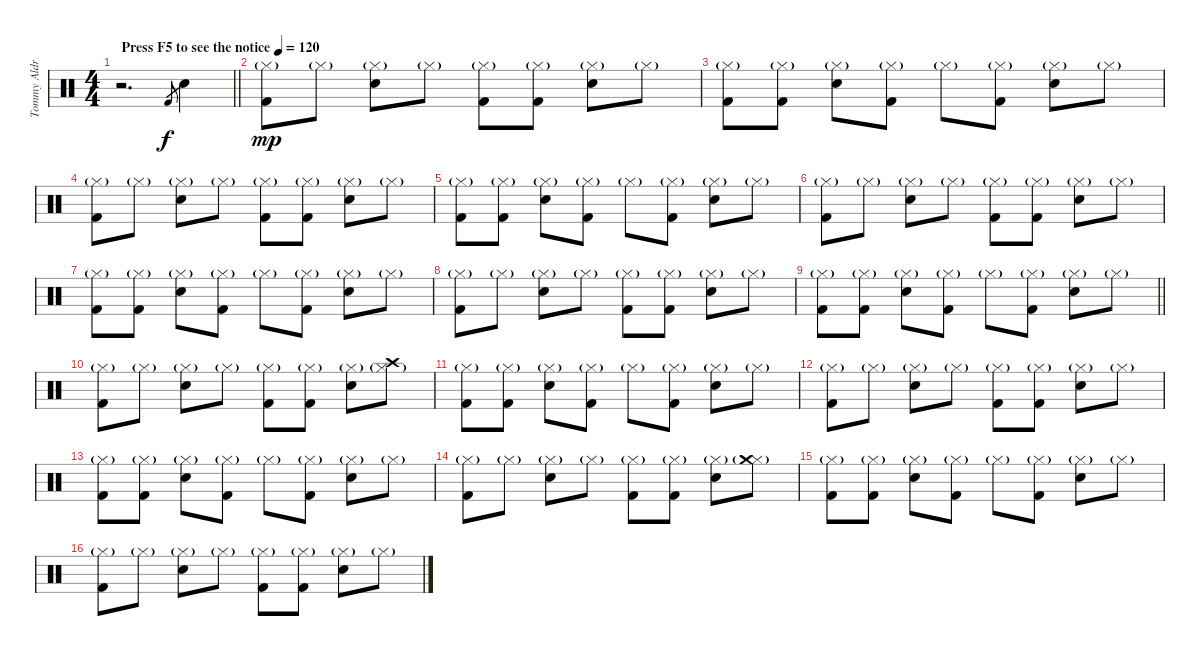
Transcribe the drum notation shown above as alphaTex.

\track ("Tommy Aldridge" "Tommy Aldr") {instrument percussion}
\staff {score}
\articulation defaults
\ts (4 4)
\tempo (120 "Press F5 to see the notice")
\clef neutral
\barLineRight lightlight
\ks c
r.2{d dy f} "Kick (hit) 2".8{gr} "Snare (hit) 2".4 |
("Hi-Hat (closed)"{g} "Kick (hit) 2").8{dy mp} "Hi-Hat (closed)"{g}.8 ("Hi-Hat (closed)"{g} "Snare (hit) 2").8 "Hi-Hat (closed)"{g}.8 ("Hi-Hat (closed)"{g} "Kick (hit) 2").8 ("Hi-Hat (closed)"{g} "Kick (hit) 2").8 ("Hi-Hat (closed)"{g} "Snare (hit) 2").8 "Hi-Hat (closed)"{g}.8 |
("Hi-Hat (closed)"{g} "Kick (hit) 2").8 ("Hi-Hat (closed)"{g} "Kick (hit) 2").8 ("Hi-Hat (closed)"{g} "Snare (hit) 2").8 ("Hi-Hat (closed)"{g} "Kick (hit) 2").8 "Hi-Hat (closed)"{g}.8 ("Hi-Hat (closed)"{g} "Kick (hit) 2").8 ("Hi-Hat (closed)"{g} "Snare (hit) 2").8 "Hi-Hat (closed)"{g}.8 |
("Hi-Hat (closed)"{g} "Kick (hit) 2").8 "Hi-Hat (closed)"{g}.8 ("Hi-Hat (closed)"{g} "Snare (hit) 2").8 "Hi-Hat (closed)"{g}.8 ("Hi-Hat (closed)"{g} "Kick (hit) 2").8 ("Hi-Hat (closed)"{g} "Kick (hit) 2").8 ("Hi-Hat (closed)"{g} "Snare (hit) 2").8 "Hi-Hat (closed)"{g}.8 |
("Hi-Hat (closed)"{g} "Kick (hit) 2").8 ("Hi-Hat (closed)"{g} "Kick (hit) 2").8 ("Hi-Hat (closed)"{g} "Snare (hit) 2").8 ("Hi-Hat (closed)"{g} "Kick (hit) 2").8 "Hi-Hat (closed)"{g}.8 ("Hi-Hat (closed)"{g} "Kick (hit) 2").8 ("Hi-Hat (closed)"{g} "Snare (hit) 2").8 "Hi-Hat (closed)"{g}.8 |
("Hi-Hat (closed)"{g} "Kick (hit) 2").8 "Hi-Hat (closed)"{g}.8 ("Hi-Hat (closed)"{g} "Snare (hit) 2").8 "Hi-Hat (closed)"{g}.8 ("Hi-Hat (closed)"{g} "Kick (hit) 2").8 ("Hi-Hat (closed)"{g} "Kick (hit) 2").8 ("Hi-Hat (closed)"{g} "Snare (hit) 2").8 "Hi-Hat (closed)"{g}.8 |
("Hi-Hat (closed)"{g} "Kick (hit) 2").8 ("Hi-Hat (closed)"{g} "Kick (hit) 2").8 ("Hi-Hat (closed)"{g} "Snare (hit) 2").8 ("Hi-Hat (closed)"{g} "Kick (hit) 2").8 "Hi-Hat (closed)"{g}.8 ("Hi-Hat (closed)"{g} "Kick (hit) 2").8 ("Hi-Hat (closed)"{g} "Snare (hit) 2").8 "Hi-Hat (closed)"{g}.8 |
("Hi-Hat (closed)"{g} "Kick (hit) 2").8 "Hi-Hat (closed)"{g}.8 ("Hi-Hat (closed)"{g} "Snare (hit) 2").8 "Hi-Hat (closed)"{g}.8 ("Hi-Hat (closed)"{g} "Kick (hit) 2").8 ("Hi-Hat (closed)"{g} "Kick (hit) 2").8 ("Hi-Hat (closed)"{g} "Snare (hit) 2").8 "Hi-Hat (closed)"{g}.8 |
\barLineRight lightlight
("Hi-Hat (closed)"{g} "Kick (hit) 2").8 ("Hi-Hat (closed)"{g} "Kick (hit) 2").8 ("Hi-Hat (closed)"{g} "Snare (hit) 2").8 ("Hi-Hat (closed)"{g} "Kick (hit) 2").8 "Hi-Hat (closed)"{g}.8 ("Hi-Hat (closed)"{g} "Kick (hit) 2").8 ("Hi-Hat (closed)"{g} "Snare (hit) 2").8 "Hi-Hat (closed)"{g}.8 |
("Hi-Hat (closed)"{g} "Kick (hit) 2").8 "Hi-Hat (closed)"{g}.8 ("Hi-Hat (closed)"{g} "Snare (hit) 2").8 "Hi-Hat (closed)"{g}.8 ("Hi-Hat (closed)"{g} "Kick (hit) 2").8 ("Hi-Hat (closed)"{g} "Kick (hit) 2").8 ("Hi-Hat (closed)"{g} "Snare (hit) 2").8 ("Hi-Hat (closed)"{g} "Crash high (hit)").8 |
("Hi-Hat (closed)"{g} "Kick (hit) 2").8 ("Hi-Hat (closed)"{g} "Kick (hit) 2").8 ("Hi-Hat (closed)"{g} "Snare (hit) 2").8 ("Hi-Hat (closed)"{g} "Kick (hit) 2").8 "Hi-Hat (closed)"{g}.8 ("Hi-Hat (closed)"{g} "Kick (hit) 2").8 ("Hi-Hat (closed)"{g} "Snare (hit) 2").8 "Hi-Hat (closed)"{g}.8 |
("Hi-Hat (closed)"{g} "Kick (hit) 2").8 "Hi-Hat (closed)"{g}.8 ("Hi-Hat (closed)"{g} "Snare (hit) 2").8 "Hi-Hat (closed)"{g}.8 ("Hi-Hat (closed)"{g} "Kick (hit) 2").8 ("Hi-Hat (closed)"{g} "Kick (hit) 2").8 ("Hi-Hat (closed)"{g} "Snare (hit) 2").8 "Hi-Hat (closed)"{g}.8 |
("Hi-Hat (closed)"{g} "Kick (hit) 2").8 ("Hi-Hat (closed)"{g} "Kick (hit) 2").8 ("Hi-Hat (closed)"{g} "Snare (hit) 2").8 ("Hi-Hat (closed)"{g} "Kick (hit) 2").8 "Hi-Hat (closed)"{g}.8 ("Hi-Hat (closed)"{g} "Kick (hit) 2").8 ("Hi-Hat (closed)"{g} "Snare (hit) 2").8 "Hi-Hat (closed)"{g}.8 |
("Hi-Hat (closed)"{g} "Kick (hit) 2").8 "Hi-Hat (closed)"{g}.8 ("Hi-Hat (closed)"{g} "Snare (hit) 2").8 "Hi-Hat (closed)"{g}.8 ("Hi-Hat (closed)"{g} "Kick (hit) 2").8 ("Hi-Hat (closed)"{g} "Kick (hit) 2").8 ("Hi-Hat (closed)"{g} "Snare (hit) 2").8 ("Hi-Hat (closed)"{g} "Crash medium (hit)").8 |
("Hi-Hat (closed)"{g} "Kick (hit) 2").8 ("Hi-Hat (closed)"{g} "Kick (hit) 2").8 ("Hi-Hat (closed)"{g} "Snare (hit) 2").8 ("Hi-Hat (closed)"{g} "Kick (hit) 2").8 "Hi-Hat (closed)"{g}.8 ("Hi-Hat (closed)"{g} "Kick (hit) 2").8 ("Hi-Hat (closed)"{g} "Snare (hit) 2").8 "Hi-Hat (closed)"{g}.8 |
("Hi-Hat (closed)"{g} "Kick (hit) 2").8 "Hi-Hat (closed)"{g}.8 ("Hi-Hat (closed)"{g} "Snare (hit) 2").8 "Hi-Hat (closed)"{g}.8 ("Hi-Hat (closed)"{g} "Kick (hit) 2").8 ("Hi-Hat (closed)"{g} "Kick (hit) 2").8 ("Hi-Hat (closed)"{g} "Snare (hit) 2").8 "Hi-Hat (closed)"{g}.8
